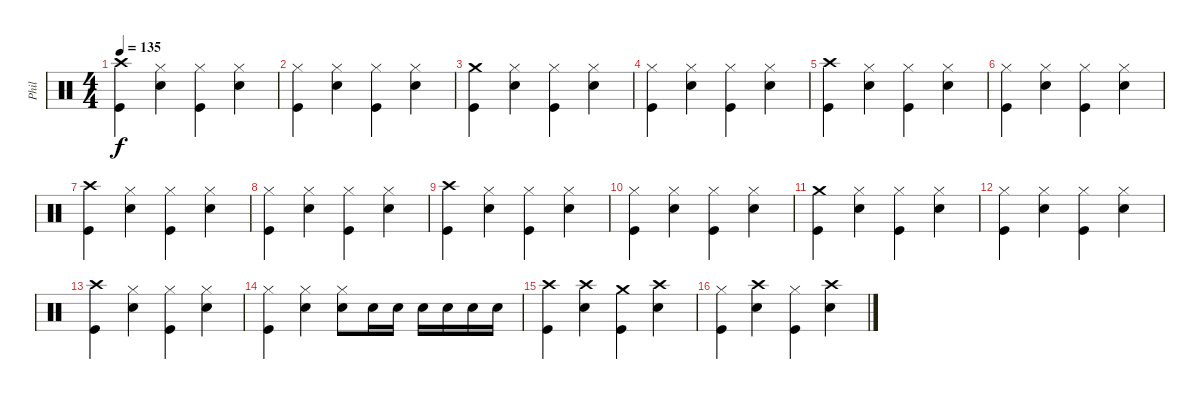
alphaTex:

\track ("Phil" "Phil") {instrument percussion}
\staff {score}
\articulation defaults
\ts (4 4)
\tempo 135
\clef neutral
\ks c
("Kick (hit)" "Crash high (hit)").4{dy f} ("Snare (hit) 2" "Hi-Hat (closed)").4 ("Kick (hit)" "Hi-Hat (closed)").4 ("Snare (hit) 2" "Hi-Hat (closed)").4 |
("Kick (hit)" "Hi-Hat (closed)").4 ("Snare (hit) 2" "Hi-Hat (closed)").4 ("Kick (hit)" "Hi-Hat (closed)").4 ("Snare (hit) 2" "Hi-Hat (closed)").4 |
("Kick (hit)" "Crash medium (hit)").4 ("Hi-Hat (closed)" "Snare (hit) 2").4 ("Hi-Hat (closed)" "Kick (hit)").4 ("Hi-Hat (closed)" "Snare (hit) 2").4 |
("Kick (hit)" "Hi-Hat (closed)").4 ("Snare (hit) 2" "Hi-Hat (closed)").4 ("Kick (hit)" "Hi-Hat (closed)").4 ("Snare (hit) 2" "Hi-Hat (closed)").4 |
("Kick (hit)" "Crash high (hit)").4 ("Hi-Hat (closed)" "Snare (hit) 2").4 ("Hi-Hat (closed)" "Kick (hit)").4 ("Hi-Hat (closed)" "Snare (hit) 2").4 |
("Hi-Hat (closed)" "Kick (hit)").4 ("Hi-Hat (closed)" "Snare (hit) 2").4 ("Hi-Hat (closed)" "Kick (hit)").4 ("Hi-Hat (closed)" "Snare (hit) 2").4 |
("Crash high (hit)" "Kick (hit)").4 ("Snare (hit) 2" "Hi-Hat (closed)").4 ("Kick (hit)" "Hi-Hat (closed)").4 ("Snare (hit) 2" "Hi-Hat (closed)").4 |
("Hi-Hat (closed)" "Kick (hit)").4 ("Snare (hit) 2" "Hi-Hat (closed)").4 ("Kick (hit)" "Hi-Hat (closed)").4 ("Snare (hit) 2" "Hi-Hat (closed)").4 |
("Kick (hit)" "Crash high (hit)").4 ("Snare (hit) 2" "Hi-Hat (closed)").4 ("Kick (hit)" "Hi-Hat (closed)").4 ("Snare (hit) 2" "Hi-Hat (closed)").4 |
("Kick (hit)" "Hi-Hat (closed)").4 ("Snare (hit) 2" "Hi-Hat (closed)").4 ("Kick (hit)" "Hi-Hat (closed)").4 ("Snare (hit) 2" "Hi-Hat (closed)").4 |
("Kick (hit)" "Crash medium (hit)").4 ("Hi-Hat (closed)" "Snare (hit) 2").4 ("Hi-Hat (closed)" "Kick (hit)").4 ("Hi-Hat (closed)" "Snare (hit) 2").4 |
("Kick (hit)" "Hi-Hat (closed)").4 ("Snare (hit) 2" "Hi-Hat (closed)").4 ("Kick (hit)" "Hi-Hat (closed)").4 ("Snare (hit) 2" "Hi-Hat (closed)").4 |
("Kick (hit)" "Crash high (hit)").4 ("Hi-Hat (closed)" "Snare (hit) 2").4 ("Hi-Hat (closed)" "Kick (hit)").4 ("Hi-Hat (closed)" "Snare (hit) 2").4 |
("Kick (hit)" "Hi-Hat (closed)").4 ("Hi-Hat (closed)" "Snare (hit) 2").4 ("Snare (hit) 2" "Hi-Hat (closed)").8 "Snare (hit) 2".16 "Snare (hit) 2".16 "Snare (hit) 2".16 "Snare (hit) 2".16 "Snare (hit) 2".16 "Snare (hit) 2".16 |
("Kick (hit)" "Crash high (hit)").4 ("Crash high (hit)" "Snare (hit) 2").4 ("Kick (hit)" "Crash medium (hit)").4 ("Crash high (hit)" "Snare (hit) 2").4 |
("Kick (hit)" "Hi-Hat (closed)").4 ("Crash high (hit)" "Snare (hit) 2").4 ("Kick (hit)" "Hi-Hat (closed)").4 ("Snare (hit) 2" "Crash high (hit)").4
